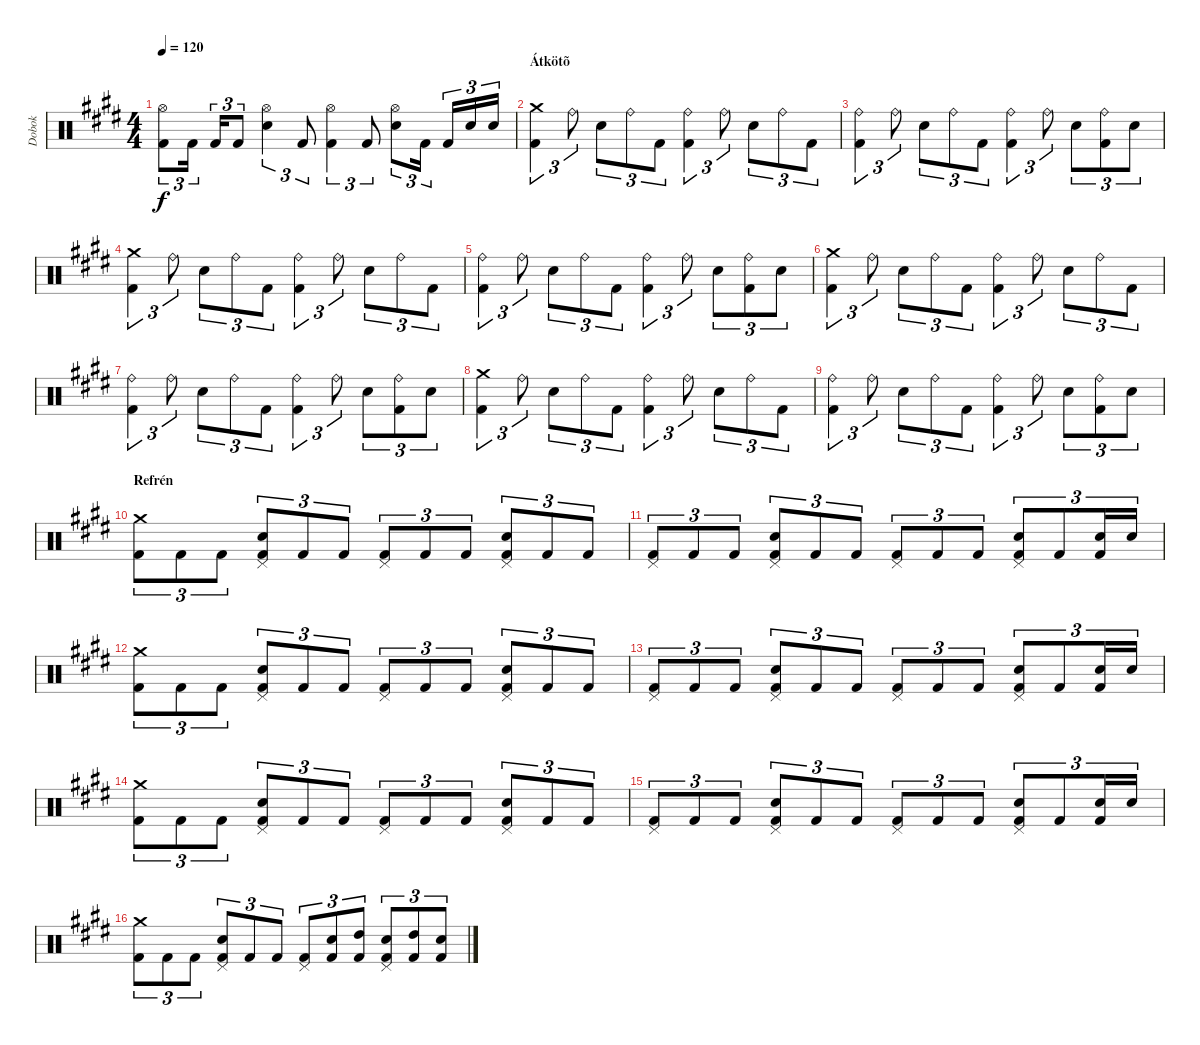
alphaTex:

\track ("Dobok" "Dobok") {instrument percussion}
\staff {score}
\articulation defaults
\ts (4 4)
\tempo 120
\clef neutral
\ks c#minor
("Hi-Hat (open)" "Kick (hit) 2").8{tu (3 2) dy f} "Kick (hit) 2".16{tu (3 2)} "Kick (hit) 2".16{tu (3 2)} "Kick (hit) 2".8{tu (3 2)} ("Hi-Hat (open)" "Snare (hit) 2").4{tu (3 2)} "Kick (hit) 2".8{tu (3 2)} ("Hi-Hat (open)" "Kick (hit) 2").4{tu (3 2)} "Kick (hit) 2".8{tu (3 2)} ("Hi-Hat (open)" "Snare (hit) 2").8{tu (3 2)} "Kick (hit) 2".16{tu (3 2)} "Kick (hit) 2".16{tu (3 2)} "Snare (hit) 2".16{tu (3 2)} "Snare (hit) 2".16{tu (3 2)} |
\section ("" "Átkötõ")
("Crash medium (hit)" "Kick (hit) 2").4{tu (3 2)} "Ride (bell)".8{tu (3 2)} "Snare (hit) 2".8{tu (3 2)} "Ride (bell)".8{tu (3 2)} "Kick (hit) 2".8{tu (3 2)} ("Ride (bell)" "Kick (hit) 2").4{tu (3 2)} "Ride (bell)".8{tu (3 2)} "Snare (hit) 2".8{tu (3 2)} "Ride (bell)".8{tu (3 2)} "Kick (hit) 2".8{tu (3 2)} |
("Ride (bell)" "Kick (hit) 2").4{tu (3 2)} "Ride (bell)".8{tu (3 2)} "Snare (hit) 2".8{tu (3 2)} "Ride (bell)".8{tu (3 2)} "Kick (hit) 2".8{tu (3 2)} ("Ride (bell)" "Kick (hit) 2").4{tu (3 2)} "Ride (bell)".8{tu (3 2)} "Snare (hit) 2".8{tu (3 2)} ("Ride (bell)" "Kick (hit) 2").8{tu (3 2)} "Snare (hit) 2".8{tu (3 2)} |
("Crash medium (hit)" "Kick (hit) 2").4{tu (3 2)} "Ride (bell)".8{tu (3 2)} "Snare (hit) 2".8{tu (3 2)} "Ride (bell)".8{tu (3 2)} "Kick (hit) 2".8{tu (3 2)} ("Ride (bell)" "Kick (hit) 2").4{tu (3 2)} "Ride (bell)".8{tu (3 2)} "Snare (hit) 2".8{tu (3 2)} "Ride (bell)".8{tu (3 2)} "Kick (hit) 2".8{tu (3 2)} |
("Ride (bell)" "Kick (hit) 2").4{tu (3 2)} "Ride (bell)".8{tu (3 2)} "Snare (hit) 2".8{tu (3 2)} "Ride (bell)".8{tu (3 2)} "Kick (hit) 2".8{tu (3 2)} ("Ride (bell)" "Kick (hit) 2").4{tu (3 2)} "Ride (bell)".8{tu (3 2)} "Snare (hit) 2".8{tu (3 2)} ("Ride (bell)" "Kick (hit) 2").8{tu (3 2)} "Snare (hit) 2".8{tu (3 2)} |
("Crash medium (hit)" "Kick (hit) 2").4{tu (3 2)} "Ride (bell)".8{tu (3 2)} "Snare (hit) 2".8{tu (3 2)} "Ride (bell)".8{tu (3 2)} "Kick (hit) 2".8{tu (3 2)} ("Ride (bell)" "Kick (hit) 2").4{tu (3 2)} "Ride (bell)".8{tu (3 2)} "Snare (hit) 2".8{tu (3 2)} "Ride (bell)".8{tu (3 2)} "Kick (hit) 2".8{tu (3 2)} |
("Ride (bell)" "Kick (hit) 2").4{tu (3 2)} "Ride (bell)".8{tu (3 2)} "Snare (hit) 2".8{tu (3 2)} "Ride (bell)".8{tu (3 2)} "Kick (hit) 2".8{tu (3 2)} ("Ride (bell)" "Kick (hit) 2").4{tu (3 2)} "Ride (bell)".8{tu (3 2)} "Snare (hit) 2".8{tu (3 2)} ("Ride (bell)" "Kick (hit) 2").8{tu (3 2)} "Snare (hit) 2".8{tu (3 2)} |
("Crash medium (hit)" "Kick (hit) 2").4{tu (3 2)} "Ride (bell)".8{tu (3 2)} "Snare (hit) 2".8{tu (3 2)} "Ride (bell)".8{tu (3 2)} "Kick (hit) 2".8{tu (3 2)} ("Ride (bell)" "Kick (hit) 2").4{tu (3 2)} "Ride (bell)".8{tu (3 2)} "Snare (hit) 2".8{tu (3 2)} "Ride (bell)".8{tu (3 2)} "Kick (hit) 2".8{tu (3 2)} |
("Ride (bell)" "Kick (hit) 2").4{tu (3 2)} "Ride (bell)".8{tu (3 2)} "Snare (hit) 2".8{tu (3 2)} "Ride (bell)".8{tu (3 2)} "Kick (hit) 2".8{tu (3 2)} ("Ride (bell)" "Kick (hit) 2").4{tu (3 2)} "Ride (bell)".8{tu (3 2)} "Snare (hit) 2".8{tu (3 2)} ("Ride (bell)" "Kick (hit) 2").8{tu (3 2)} "Snare (hit) 2".8{tu (3 2)} |
\section ("" "Refrén")
("Crash medium (hit)" "Kick (hit) 2").8{tu (3 2)} "Kick (hit) 2".8{tu (3 2)} "Kick (hit) 2".8{tu (3 2)} ("Pedal Hi-Hat (hit)" "Snare (hit) 2" "Kick (hit) 2").8{tu (3 2)} "Kick (hit) 2".8{tu (3 2)} "Kick (hit) 2".8{tu (3 2)} ("Pedal Hi-Hat (hit)" "Kick (hit) 2").8{tu (3 2)} "Kick (hit) 2".8{tu (3 2)} "Kick (hit) 2".8{tu (3 2)} ("Pedal Hi-Hat (hit)" "Snare (hit) 2" "Kick (hit) 2").8{tu (3 2)} "Kick (hit) 2".8{tu (3 2)} "Kick (hit) 2".8{tu (3 2)} |
("Pedal Hi-Hat (hit)" "Kick (hit) 2").8{tu (3 2)} "Kick (hit) 2".8{tu (3 2)} "Kick (hit) 2".8{tu (3 2)} ("Pedal Hi-Hat (hit)" "Snare (hit) 2" "Kick (hit) 2").8{tu (3 2)} "Kick (hit) 2".8{tu (3 2)} "Kick (hit) 2".8{tu (3 2)} ("Pedal Hi-Hat (hit)" "Kick (hit) 2").8{tu (3 2)} "Kick (hit) 2".8{tu (3 2)} "Kick (hit) 2".8{tu (3 2)} ("Pedal Hi-Hat (hit)" "Snare (hit) 2" "Kick (hit) 2").8{tu (3 2)} "Kick (hit) 2".8{tu (3 2)} ("Snare (hit) 2" "Kick (hit) 2").16{tu (3 2)} "Snare (hit) 2".16{tu (3 2)} |
("Crash medium (hit)" "Kick (hit) 2").8{tu (3 2)} "Kick (hit) 2".8{tu (3 2)} "Kick (hit) 2".8{tu (3 2)} ("Pedal Hi-Hat (hit)" "Snare (hit) 2" "Kick (hit) 2").8{tu (3 2)} "Kick (hit) 2".8{tu (3 2)} "Kick (hit) 2".8{tu (3 2)} ("Pedal Hi-Hat (hit)" "Kick (hit) 2").8{tu (3 2)} "Kick (hit) 2".8{tu (3 2)} "Kick (hit) 2".8{tu (3 2)} ("Pedal Hi-Hat (hit)" "Snare (hit) 2" "Kick (hit) 2").8{tu (3 2)} "Kick (hit) 2".8{tu (3 2)} "Kick (hit) 2".8{tu (3 2)} |
("Pedal Hi-Hat (hit)" "Kick (hit) 2").8{tu (3 2)} "Kick (hit) 2".8{tu (3 2)} "Kick (hit) 2".8{tu (3 2)} ("Pedal Hi-Hat (hit)" "Snare (hit) 2" "Kick (hit) 2").8{tu (3 2)} "Kick (hit) 2".8{tu (3 2)} "Kick (hit) 2".8{tu (3 2)} ("Pedal Hi-Hat (hit)" "Kick (hit) 2").8{tu (3 2)} "Kick (hit) 2".8{tu (3 2)} "Kick (hit) 2".8{tu (3 2)} ("Pedal Hi-Hat (hit)" "Snare (hit) 2" "Kick (hit) 2").8{tu (3 2)} "Kick (hit) 2".8{tu (3 2)} ("Snare (hit) 2" "Kick (hit) 2").16{tu (3 2)} "Snare (hit) 2".16{tu (3 2)} |
("Crash medium (hit)" "Kick (hit) 2").8{tu (3 2)} "Kick (hit) 2".8{tu (3 2)} "Kick (hit) 2".8{tu (3 2)} ("Pedal Hi-Hat (hit)" "Snare (hit) 2" "Kick (hit) 2").8{tu (3 2)} "Kick (hit) 2".8{tu (3 2)} "Kick (hit) 2".8{tu (3 2)} ("Pedal Hi-Hat (hit)" "Kick (hit) 2").8{tu (3 2)} "Kick (hit) 2".8{tu (3 2)} "Kick (hit) 2".8{tu (3 2)} ("Pedal Hi-Hat (hit)" "Snare (hit) 2" "Kick (hit) 2").8{tu (3 2)} "Kick (hit) 2".8{tu (3 2)} "Kick (hit) 2".8{tu (3 2)} |
("Pedal Hi-Hat (hit)" "Kick (hit) 2").8{tu (3 2)} "Kick (hit) 2".8{tu (3 2)} "Kick (hit) 2".8{tu (3 2)} ("Pedal Hi-Hat (hit)" "Snare (hit) 2" "Kick (hit) 2").8{tu (3 2)} "Kick (hit) 2".8{tu (3 2)} "Kick (hit) 2".8{tu (3 2)} ("Pedal Hi-Hat (hit)" "Kick (hit) 2").8{tu (3 2)} "Kick (hit) 2".8{tu (3 2)} "Kick (hit) 2".8{tu (3 2)} ("Pedal Hi-Hat (hit)" "Snare (hit) 2" "Kick (hit) 2").8{tu (3 2)} "Kick (hit) 2".8{tu (3 2)} ("Snare (hit) 2" "Kick (hit) 2").16{tu (3 2)} "Snare (hit) 2".16{tu (3 2)} |
("Crash medium (hit)" "Kick (hit) 2").8{tu (3 2)} "Kick (hit) 2".8{tu (3 2)} "Kick (hit) 2".8{tu (3 2)} ("Pedal Hi-Hat (hit)" "Snare (hit) 2" "Kick (hit) 2").8{tu (3 2)} "Kick (hit) 2".8{tu (3 2)} "Kick (hit) 2".8{tu (3 2)} ("Pedal Hi-Hat (hit)" "Kick (hit) 2").8{tu (3 2)} ("Snare (hit) 2" "Kick (hit) 2").8{tu (3 2)} ("High Tom (hit)" "Kick (hit) 2").8{tu (3 2)} ("Pedal Hi-Hat (hit)" "Snare (hit) 2" "Kick (hit) 2").8{tu (3 2)} ("High Tom (hit)" "Kick (hit) 2").8{tu (3 2)} ("Snare (hit) 2" "Kick (hit) 2").8{tu (3 2)}
